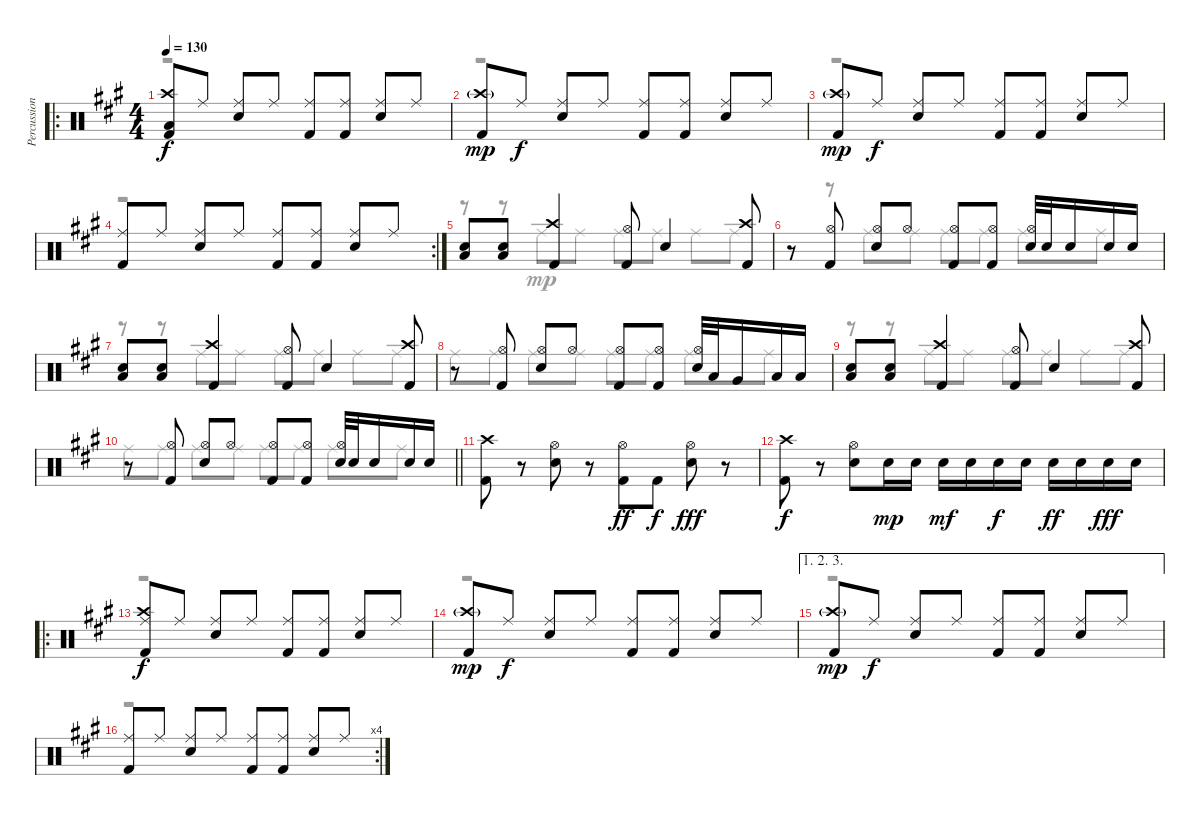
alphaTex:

\track ("Percussion" "Percussion") {instrument percussion}
\staff {score}
\articulation defaults
\voice
\ro
\ts (4 4)
\tempo 130
\clef neutral
\ks a
("Crash high (hit)" "Low Floor Tom (hit)" "Kick (hit) 2").8{dy f} "Ride (middle)".8 ("Ride (middle)" "Electric Snare (hit)").8 "Ride (middle)".8 ("Ride (middle)" "Kick (hit) 2").8 ("Ride (middle)" "Kick (hit) 2").8 ("Ride (middle)" "Electric Snare (hit)").8 "Ride (middle)".8 |
("Crash high (hit)"{g} "Kick (hit) 2").8{dy mp} "Ride (middle)".8{dy f} ("Ride (middle)" "Electric Snare (hit)").8 "Ride (middle)".8 ("Ride (middle)" "Kick (hit) 2").8 ("Ride (middle)" "Kick (hit) 2").8 ("Ride (middle)" "Electric Snare (hit)").8 "Ride (middle)".8 |
("Crash high (hit)"{g} "Kick (hit) 2").8{dy mp} "Ride (middle)".8{dy f} ("Ride (middle)" "Electric Snare (hit)").8 "Ride (middle)".8 ("Ride (middle)" "Kick (hit) 2").8 ("Ride (middle)" "Kick (hit) 2").8 ("Ride (middle)" "Electric Snare (hit)").8 "Ride (middle)".8 |
\rc 2
("Ride (middle)" "Kick (hit) 2").8 "Ride (middle)".8 ("Ride (middle)" "Electric Snare (hit)").8 "Ride (middle)".8 ("Ride (middle)" "Kick (hit) 2").8 ("Ride (middle)" "Kick (hit) 2").8 ("Ride (middle)" "Electric Snare (hit)").8 "Ride (middle)".8 |
("Electric Snare (hit)" "Low Floor Tom (hit)").8 ("Electric Snare (hit)" "Low Floor Tom (hit)").8 ("Crash high (hit)" "Kick (hit) 2").4 ("Hi-Hat (open)" "Kick (hit) 2").8 "Electric Snare (hit)".4 ("Crash high (hit)" "Kick (hit) 2").8 |
r.8 ("Hi-Hat (open)" "Kick (hit) 2").8 ("Hi-Hat (open)" "Electric Snare (hit)").8 "Hi-Hat (open)".8 ("Hi-Hat (open)" "Kick (hit) 2").8 ("Hi-Hat (open)" "Kick (hit) 2").8 ("Hi-Hat (open)" "Electric Snare (hit)").32 "Electric Snare (hit)".32 "Electric Snare (hit)".16 "Electric Snare (hit)".16 "Electric Snare (hit)".16 |
("Electric Snare (hit)" "Low Floor Tom (hit)").8 ("Electric Snare (hit)" "Low Floor Tom (hit)").8 ("Crash high (hit)" "Kick (hit) 2").4 ("Hi-Hat (open)" "Kick (hit) 2").8 "Electric Snare (hit)".4 ("Crash high (hit)" "Kick (hit) 2").8 |
r.8 ("Hi-Hat (open)" "Kick (hit) 2").8 ("Hi-Hat (open)" "Electric Snare (hit)").8 "Hi-Hat (open)".8 ("Hi-Hat (open)" "Kick (hit) 2").8 ("Hi-Hat (open)" "Kick (hit) 2").8 ("Hi-Hat (open)" "Electric Snare (hit)").32 "Low Tom (hit)".32 "Very Low Tom (hit)".16 "Low Floor Tom (hit)".16 "Low Floor Tom (hit)".16 |
("Electric Snare (hit)" "Low Floor Tom (hit)").8 ("Electric Snare (hit)" "Low Floor Tom (hit)").8 ("Crash high (hit)" "Kick (hit) 2").4 ("Hi-Hat (open)" "Kick (hit) 2").8 "Electric Snare (hit)".4 ("Crash high (hit)" "Kick (hit) 2").8 |
\barLineRight lightlight
r.8 ("Hi-Hat (open)" "Kick (hit) 2").8 ("Hi-Hat (open)" "Electric Snare (hit)").8 "Hi-Hat (open)".8 ("Hi-Hat (open)" "Kick (hit) 2").8 ("Hi-Hat (open)" "Kick (hit) 2").8 ("Hi-Hat (open)" "Electric Snare (hit)").32 "Electric Snare (hit)".32 "Electric Snare (hit)".16 "Electric Snare (hit)".16 "Electric Snare (hit)".16 |
("Crash high (hit)" "Kick (hit) 2").8 r.8 ("Hi-Hat (open)" "Electric Snare (hit)").8 r.8 ("Hi-Hat (open)" "Kick (hit) 2").8{dy ff} "Kick (hit) 2".8{dy f} ("Hi-Hat (open)" "Electric Snare (hit)").8{dy fff} r.8 |
("Crash high (hit)" "Kick (hit) 2").8{dy f} r.8 ("Hi-Hat (open)" "Electric Snare (hit)").8 "Electric Snare (hit)".16{dy mp} "Electric Snare (hit)".16 "Electric Snare (hit)".16{dy mf} "Electric Snare (hit)".16 "Electric Snare (hit)".16{dy f} "Electric Snare (hit)".16 "Electric Snare (hit)".16{dy ff} "Electric Snare (hit)".16 "Electric Snare (hit)".16{dy fff} "Electric Snare (hit)".16 |
\ro
("Crash high (hit)" "Ride (middle)" "Kick (hit) 2").8{dy f} "Ride (middle)".8 ("Ride (middle)" "Electric Snare (hit)").8 "Ride (middle)".8 ("Ride (middle)" "Kick (hit) 2").8 ("Ride (middle)" "Kick (hit) 2").8 ("Ride (middle)" "Electric Snare (hit)").8 "Ride (middle)".8 |
("Crash high (hit)"{g} "Kick (hit) 2").8{dy mp} "Ride (middle)".8{dy f} ("Ride (middle)" "Electric Snare (hit)").8 "Ride (middle)".8 ("Ride (middle)" "Kick (hit) 2").8 ("Ride (middle)" "Kick (hit) 2").8 ("Ride (middle)" "Electric Snare (hit)").8 "Ride (middle)".8 |
\ae (1 2 3)
("Crash high (hit)"{g} "Kick (hit) 2").8{dy mp} "Ride (middle)".8{dy f} ("Ride (middle)" "Electric Snare (hit)").8 "Ride (middle)".8 ("Ride (middle)" "Kick (hit) 2").8 ("Ride (middle)" "Kick (hit) 2").8 ("Ride (middle)" "Electric Snare (hit)").8 "Ride (middle)".8 |
\rc 4
("Ride (middle)" "Kick (hit) 2").8 "Ride (middle)".8 ("Ride (middle)" "Electric Snare (hit)").8 "Ride (middle)".8 ("Ride (middle)" "Kick (hit) 2").8 ("Ride (middle)" "Kick (hit) 2").8 ("Ride (middle)" "Electric Snare (hit)").8 "Ride (middle)".8
\voice
\clef neutral
\ottava regular
\simile none
\ks a
r.1{dy f} |
r.1 |
r.1 |
r.1 |
r.8 r.8 "Ride (middle)".8{dy mp} "Ride (middle)".8 "Ride (middle)".8 "Ride (middle)".8 "Ride (middle)".8 "Ride (middle)".8 |
r.8 r.8 "Ride (middle)".8 "Ride (middle)".8 "Ride (middle)".8 "Ride (middle)".8 "Ride (middle)".8 "Ride (middle)".8 |
r.8 r.8 "Ride (middle)".8 "Ride (middle)".8 "Ride (middle)".8 "Ride (middle)".8 "Ride (middle)".8 "Ride (middle)".8 |
"Ride (middle)".8 "Ride (middle)".8 "Ride (middle)".8 "Ride (middle)".8 "Ride (middle)".8 "Ride (middle)".8 "Ride (middle)".8 "Ride (middle)".8 |
r.8 r.8 "Ride (middle)".8 "Ride (middle)".8 "Ride (middle)".8 "Ride (middle)".8 "Ride (middle)".8 "Ride (middle)".8 |
\barLineRight lightlight "Ride (middle)".8 "Ride (middle)".8 "Ride (middle)".8 "Ride (middle)".8 "Ride (middle)".8 "Ride (middle)".8 "Ride (middle)".8 "Ride (middle)".8
|
|
|
r.1 |
r.1 |
r.1 |
r.1
